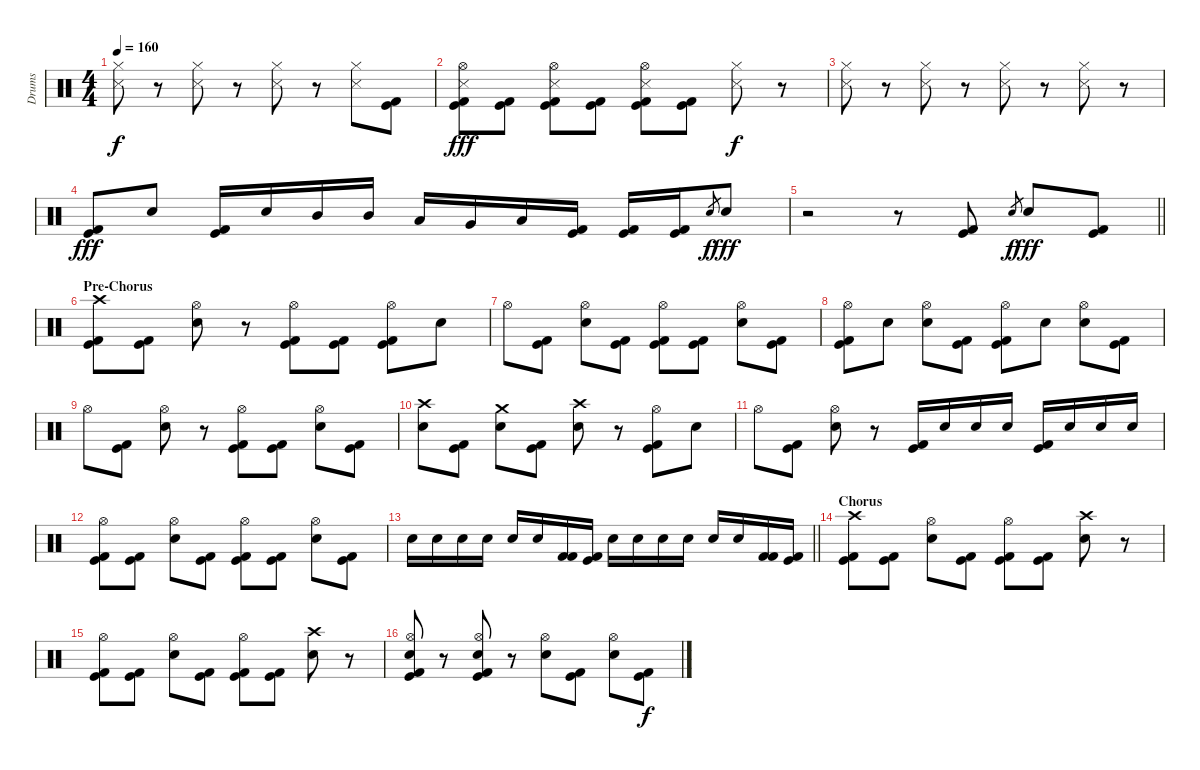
\track ("Drums" "Drums") {instrument percussion}
\staff {score}
\articulation defaults
\ts (4 4)
\tempo 160
\clef neutral
\ks c
("Hi-Hat (closed)" "Metronome (hit)").8{dy f} r.8 ("Hi-Hat (closed)" "Metronome (hit)").8 r.8 ("Hi-Hat (closed)" "Metronome (hit)").8 r.8 ("Hi-Hat (closed)" "Metronome (hit)").8 ("Kick (hit)" "Kick (hit) 2").8 |
("Hi-Hat (open)" "Metronome (hit)" "Kick (hit)" "Kick (hit) 2").8{dy fff} ("Kick (hit)" "Kick (hit) 2").8 ("Hi-Hat (open)" "Metronome (hit)" "Kick (hit)" "Kick (hit) 2").8 ("Kick (hit)" "Kick (hit) 2").8 ("Hi-Hat (open)" "Metronome (hit)" "Kick (hit)" "Kick (hit) 2").8 ("Kick (hit)" "Kick (hit) 2").8 ("Hi-Hat (closed)" "Metronome (hit)").8{dy f} r.8 |
("Hi-Hat (closed)" "Metronome (hit)").8 r.8 ("Hi-Hat (closed)" "Metronome (hit)").8 r.8 ("Hi-Hat (closed)" "Metronome (hit)").8 r.8 ("Hi-Hat (closed)" "Metronome (hit)").8 r.8 |
("Kick (hit)" "Kick (hit) 2").8{dy fff} "Electric Snare (hit)".8 ("Kick (hit)" "Kick (hit) 2").16 "Electric Snare (hit)".16 "Mid Tom (hit)".16 "Mid Tom (hit)".16 "Low Tom (hit)".16 "Very Low Tom (hit)".16 "Low Floor Tom (hit)".16 ("Kick (hit)" "Kick (hit) 2").16 ("Kick (hit)" "Kick (hit) 2").16 ("Kick (hit)" "Kick (hit) 2").16 "Electric Snare (hit)".8{gr dy f} "Electric Snare (hit)".8{dy fff} |
\barLineRight lightlight
r.2 r.8 ("Kick (hit)" "Kick (hit) 2").8 "Electric Snare (hit)".8{gr dy f} "Electric Snare (hit)".8{dy fff} ("Kick (hit)" "Kick (hit) 2").8 |
\section ("" "Pre-Chorus")
("Crash high (hit)" "Kick (hit)" "Kick (hit) 2").8 ("Kick (hit)" "Kick (hit) 2").8 ("Hi-Hat (open)" "Electric Snare (hit)").8 r.8 ("Hi-Hat (open)" "Kick (hit)" "Kick (hit) 2").8 ("Kick (hit)" "Kick (hit) 2").8 ("Hi-Hat (open)" "Kick (hit)" "Kick (hit) 2").8 "Electric Snare (hit)".8 |
"Hi-Hat (open)".8 ("Kick (hit)" "Kick (hit) 2").8 ("Hi-Hat (open)" "Electric Snare (hit)").8 ("Kick (hit)" "Kick (hit) 2").8 ("Hi-Hat (open)" "Kick (hit)" "Kick (hit) 2").8 ("Kick (hit)" "Kick (hit) 2").8 ("Hi-Hat (open)" "Electric Snare (hit)").8 ("Kick (hit)" "Kick (hit) 2").8 |
("Hi-Hat (open)" "Kick (hit)" "Kick (hit) 2").8 "Electric Snare (hit)".8 ("Hi-Hat (open)" "Electric Snare (hit)").8 ("Kick (hit)" "Kick (hit) 2").8 ("Hi-Hat (open)" "Kick (hit)" "Kick (hit) 2").8 "Electric Snare (hit)".8 ("Hi-Hat (open)" "Electric Snare (hit)").8 ("Kick (hit)" "Kick (hit) 2").8 |
"Hi-Hat (open)".8 ("Kick (hit)" "Kick (hit) 2").8 ("Hi-Hat (open)" "Electric Snare (hit)").8 r.8 ("Hi-Hat (open)" "Kick (hit)" "Kick (hit) 2").8 ("Kick (hit)" "Kick (hit) 2").8 ("Hi-Hat (open)" "Electric Snare (hit)").8 ("Kick (hit)" "Kick (hit) 2").8 |
("Crash high (hit)" "Electric Snare (hit)").8 ("Kick (hit)" "Kick (hit) 2").8 ("Crash medium (hit)" "Electric Snare (hit)").8 ("Kick (hit)" "Kick (hit) 2").8 ("Crash high (hit)" "Electric Snare (hit)").8 r.8 ("Hi-Hat (open)" "Kick (hit)" "Kick (hit) 2").8 "Electric Snare (hit)".8 |
"Hi-Hat (open)".8 ("Kick (hit)" "Kick (hit) 2").8 ("Hi-Hat (open)" "Electric Snare (hit)").8 r.8 ("Kick (hit)" "Kick (hit) 2").16 "Electric Snare (hit)".16 "Electric Snare (hit)".16 "Electric Snare (hit)".16 ("Kick (hit)" "Kick (hit) 2").16 "Electric Snare (hit)".16 "Electric Snare (hit)".16 "Electric Snare (hit)".16 |
("Hi-Hat (open)" "Kick (hit)" "Kick (hit) 2").8 ("Kick (hit)" "Kick (hit) 2").8 ("Hi-Hat (open)" "Electric Snare (hit)").8 ("Kick (hit)" "Kick (hit) 2").8 ("Hi-Hat (open)" "Kick (hit)" "Kick (hit) 2").8 ("Kick (hit)" "Kick (hit) 2").8 ("Hi-Hat (open)" "Electric Snare (hit)").8 ("Kick (hit)" "Kick (hit) 2").8 |
\barLineRight lightlight "Electric Snare (hit)".16 "Electric Snare (hit)".16 "Electric Snare (hit)".16 "Electric Snare (hit)".16 "Electric Snare (hit)".16 "Electric Snare (hit)".16
("Kick (hit) 2" "Kick (hit) 2").16 ("Kick (hit)" "Kick (hit) 2").16 "Electric Snare (hit)".16 "Electric Snare (hit)".16 "Electric Snare (hit)".16 "Electric Snare (hit)".16 "Electric Snare (hit)".16 "Electric Snare (hit)".16 ("Kick (hit) 2" "Kick (hit) 2").16 ("Kick (hit)" "Kick (hit) 2").16 |
\section ("" "Chorus")
("Crash high (hit)" "Kick (hit)" "Kick (hit) 2").8 ("Kick (hit)" "Kick (hit) 2").8 ("Hi-Hat (open)" "Electric Snare (hit)").8 ("Kick (hit)" "Kick (hit) 2").8 ("Hi-Hat (open)" "Kick (hit)" "Kick (hit) 2").8 ("Kick (hit)" "Kick (hit) 2").8 ("Crash high (hit)" "Electric Snare (hit)").8 r.8 |
("Hi-Hat (open)" "Kick (hit)" "Kick (hit) 2").8 ("Kick (hit)" "Kick (hit) 2").8 ("Hi-Hat (open)" "Electric Snare (hit)").8 ("Kick (hit)" "Kick (hit) 2").8 ("Hi-Hat (open)" "Kick (hit)" "Kick (hit) 2").8 ("Kick (hit)" "Kick (hit) 2").8 ("Crash high (hit)" "Electric Snare (hit)").8 r.8 |
("Hi-Hat (open)" "Electric Snare (hit)" "Kick (hit)" "Kick (hit) 2").8 r.8 ("Hi-Hat (open)" "Electric Snare (hit)" "Kick (hit)" "Kick (hit) 2").8 r.8 ("Hi-Hat (open)" "Electric Snare (hit)").8 ("Kick (hit)" "Kick (hit) 2").8 ("Hi-Hat (open)" "Electric Snare (hit)").8 ("Kick (hit)" "Kick (hit) 2").8{dy f}
